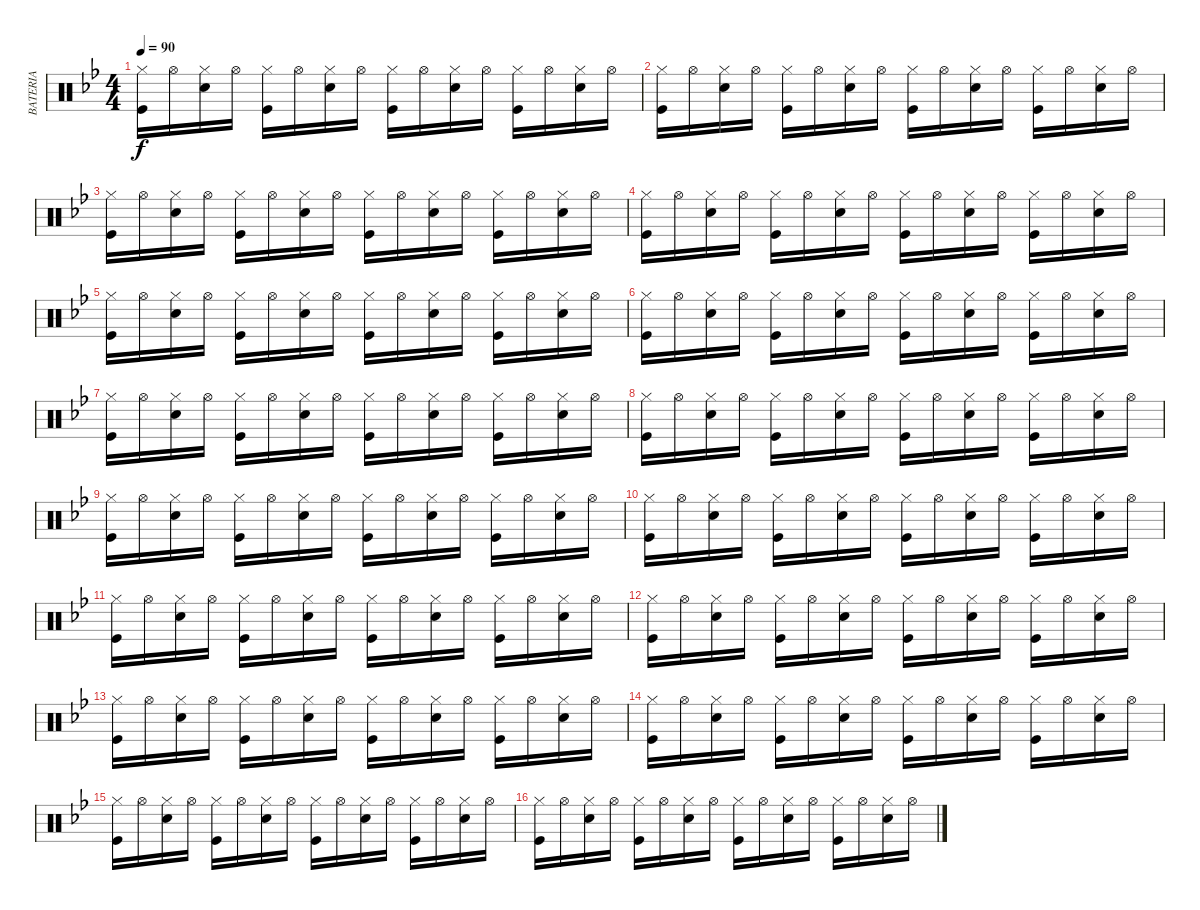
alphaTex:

\track ("BATERIA" "BATERIA") {instrument percussion}
\staff {score}
\articulation defaults
\ts (4 4)
\tempo 90
\clef neutral
\ks gminor
("Hi-Hat (closed)" "Kick (hit)").16{dy f} "Hi-Hat (open)".16 ("Hi-Hat (closed)" "Snare (hit) 2").16 "Hi-Hat (open)".16 ("Hi-Hat (closed)" "Kick (hit)").16 "Hi-Hat (open)".16 ("Hi-Hat (closed)" "Snare (hit) 2").16 "Hi-Hat (open)".16 ("Hi-Hat (closed)" "Kick (hit)").16 "Hi-Hat (open)".16 ("Hi-Hat (closed)" "Snare (hit) 2").16 "Hi-Hat (open)".16 ("Hi-Hat (closed)" "Kick (hit)").16 "Hi-Hat (open)".16 ("Hi-Hat (closed)" "Snare (hit) 2").16 "Hi-Hat (open)".16 |
("Hi-Hat (closed)" "Kick (hit)").16 "Hi-Hat (open)".16 ("Hi-Hat (closed)" "Snare (hit) 2").16 "Hi-Hat (open)".16 ("Hi-Hat (closed)" "Kick (hit)").16 "Hi-Hat (open)".16 ("Hi-Hat (closed)" "Snare (hit) 2").16 "Hi-Hat (open)".16 ("Hi-Hat (closed)" "Kick (hit)").16 "Hi-Hat (open)".16 ("Hi-Hat (closed)" "Snare (hit) 2").16 "Hi-Hat (open)".16 ("Hi-Hat (closed)" "Kick (hit)").16 "Hi-Hat (open)".16 ("Hi-Hat (closed)" "Snare (hit) 2").16 "Hi-Hat (open)".16 |
("Hi-Hat (closed)" "Kick (hit)").16 "Hi-Hat (open)".16 ("Hi-Hat (closed)" "Snare (hit) 2").16 "Hi-Hat (open)".16 ("Hi-Hat (closed)" "Kick (hit)").16 "Hi-Hat (open)".16 ("Hi-Hat (closed)" "Snare (hit) 2").16 "Hi-Hat (open)".16 ("Hi-Hat (closed)" "Kick (hit)").16 "Hi-Hat (open)".16 ("Hi-Hat (closed)" "Snare (hit) 2").16 "Hi-Hat (open)".16 ("Hi-Hat (closed)" "Kick (hit)").16 "Hi-Hat (open)".16 ("Hi-Hat (closed)" "Snare (hit) 2").16 "Hi-Hat (open)".16 |
("Hi-Hat (closed)" "Kick (hit)").16 "Hi-Hat (open)".16 ("Hi-Hat (closed)" "Snare (hit) 2").16 "Hi-Hat (open)".16 ("Hi-Hat (closed)" "Kick (hit)").16 "Hi-Hat (open)".16 ("Hi-Hat (closed)" "Snare (hit) 2").16 "Hi-Hat (open)".16 ("Hi-Hat (closed)" "Kick (hit)").16 "Hi-Hat (open)".16 ("Hi-Hat (closed)" "Snare (hit) 2").16 "Hi-Hat (open)".16 ("Hi-Hat (closed)" "Kick (hit)").16 "Hi-Hat (open)".16 ("Hi-Hat (closed)" "Snare (hit) 2").16 "Hi-Hat (open)".16 |
("Hi-Hat (closed)" "Kick (hit)").16 "Hi-Hat (open)".16 ("Hi-Hat (closed)" "Snare (hit) 2").16 "Hi-Hat (open)".16 ("Hi-Hat (closed)" "Kick (hit)").16 "Hi-Hat (open)".16 ("Hi-Hat (closed)" "Snare (hit) 2").16 "Hi-Hat (open)".16 ("Hi-Hat (closed)" "Kick (hit)").16 "Hi-Hat (open)".16 ("Hi-Hat (closed)" "Snare (hit) 2").16 "Hi-Hat (open)".16 ("Hi-Hat (closed)" "Kick (hit)").16 "Hi-Hat (open)".16 ("Hi-Hat (closed)" "Snare (hit) 2").16 "Hi-Hat (open)".16 |
("Hi-Hat (closed)" "Kick (hit)").16 "Hi-Hat (open)".16 ("Hi-Hat (closed)" "Snare (hit) 2").16 "Hi-Hat (open)".16 ("Hi-Hat (closed)" "Kick (hit)").16 "Hi-Hat (open)".16 ("Hi-Hat (closed)" "Snare (hit) 2").16 "Hi-Hat (open)".16 ("Hi-Hat (closed)" "Kick (hit)").16 "Hi-Hat (open)".16 ("Hi-Hat (closed)" "Snare (hit) 2").16 "Hi-Hat (open)".16 ("Hi-Hat (closed)" "Kick (hit)").16 "Hi-Hat (open)".16 ("Hi-Hat (closed)" "Snare (hit) 2").16 "Hi-Hat (open)".16 |
("Hi-Hat (closed)" "Kick (hit)").16 "Hi-Hat (open)".16 ("Hi-Hat (closed)" "Snare (hit) 2").16 "Hi-Hat (open)".16 ("Hi-Hat (closed)" "Kick (hit)").16 "Hi-Hat (open)".16 ("Hi-Hat (closed)" "Snare (hit) 2").16 "Hi-Hat (open)".16 ("Hi-Hat (closed)" "Kick (hit)").16 "Hi-Hat (open)".16 ("Hi-Hat (closed)" "Snare (hit) 2").16 "Hi-Hat (open)".16 ("Hi-Hat (closed)" "Kick (hit)").16 "Hi-Hat (open)".16 ("Hi-Hat (closed)" "Snare (hit) 2").16 "Hi-Hat (open)".16 |
("Hi-Hat (closed)" "Kick (hit)").16 "Hi-Hat (open)".16 ("Hi-Hat (closed)" "Snare (hit) 2").16 "Hi-Hat (open)".16 ("Hi-Hat (closed)" "Kick (hit)").16 "Hi-Hat (open)".16 ("Hi-Hat (closed)" "Snare (hit) 2").16 "Hi-Hat (open)".16 ("Hi-Hat (closed)" "Kick (hit)").16 "Hi-Hat (open)".16 ("Hi-Hat (closed)" "Snare (hit) 2").16 "Hi-Hat (open)".16 ("Hi-Hat (closed)" "Kick (hit)").16 "Hi-Hat (open)".16 ("Hi-Hat (closed)" "Snare (hit) 2").16 "Hi-Hat (open)".16 |
("Hi-Hat (closed)" "Kick (hit)").16 "Hi-Hat (open)".16 ("Hi-Hat (closed)" "Snare (hit) 2").16 "Hi-Hat (open)".16 ("Hi-Hat (closed)" "Kick (hit)").16 "Hi-Hat (open)".16 ("Hi-Hat (closed)" "Snare (hit) 2").16 "Hi-Hat (open)".16 ("Hi-Hat (closed)" "Kick (hit)").16 "Hi-Hat (open)".16 ("Hi-Hat (closed)" "Snare (hit) 2").16 "Hi-Hat (open)".16 ("Hi-Hat (closed)" "Kick (hit)").16 "Hi-Hat (open)".16 ("Hi-Hat (closed)" "Snare (hit) 2").16 "Hi-Hat (open)".16 |
("Hi-Hat (closed)" "Kick (hit)").16 "Hi-Hat (open)".16 ("Hi-Hat (closed)" "Snare (hit) 2").16 "Hi-Hat (open)".16 ("Hi-Hat (closed)" "Kick (hit)").16 "Hi-Hat (open)".16 ("Hi-Hat (closed)" "Snare (hit) 2").16 "Hi-Hat (open)".16 ("Hi-Hat (closed)" "Kick (hit)").16 "Hi-Hat (open)".16 ("Hi-Hat (closed)" "Snare (hit) 2").16 "Hi-Hat (open)".16 ("Hi-Hat (closed)" "Kick (hit)").16 "Hi-Hat (open)".16 ("Hi-Hat (closed)" "Snare (hit) 2").16 "Hi-Hat (open)".16 |
("Hi-Hat (closed)" "Kick (hit)").16 "Hi-Hat (open)".16 ("Hi-Hat (closed)" "Snare (hit) 2").16 "Hi-Hat (open)".16 ("Hi-Hat (closed)" "Kick (hit)").16 "Hi-Hat (open)".16 ("Hi-Hat (closed)" "Snare (hit) 2").16 "Hi-Hat (open)".16 ("Hi-Hat (closed)" "Kick (hit)").16 "Hi-Hat (open)".16 ("Hi-Hat (closed)" "Snare (hit) 2").16 "Hi-Hat (open)".16 ("Hi-Hat (closed)" "Kick (hit)").16 "Hi-Hat (open)".16 ("Hi-Hat (closed)" "Snare (hit) 2").16 "Hi-Hat (open)".16 |
("Hi-Hat (closed)" "Kick (hit)").16 "Hi-Hat (open)".16 ("Hi-Hat (closed)" "Snare (hit) 2").16 "Hi-Hat (open)".16 ("Hi-Hat (closed)" "Kick (hit)").16 "Hi-Hat (open)".16 ("Hi-Hat (closed)" "Snare (hit) 2").16 "Hi-Hat (open)".16 ("Hi-Hat (closed)" "Kick (hit)").16 "Hi-Hat (open)".16 ("Hi-Hat (closed)" "Snare (hit) 2").16 "Hi-Hat (open)".16 ("Hi-Hat (closed)" "Kick (hit)").16 "Hi-Hat (open)".16 ("Hi-Hat (closed)" "Snare (hit) 2").16 "Hi-Hat (open)".16 |
("Hi-Hat (closed)" "Kick (hit)").16 "Hi-Hat (open)".16 ("Hi-Hat (closed)" "Snare (hit) 2").16 "Hi-Hat (open)".16 ("Hi-Hat (closed)" "Kick (hit)").16 "Hi-Hat (open)".16 ("Hi-Hat (closed)" "Snare (hit) 2").16 "Hi-Hat (open)".16 ("Hi-Hat (closed)" "Kick (hit)").16 "Hi-Hat (open)".16 ("Hi-Hat (closed)" "Snare (hit) 2").16 "Hi-Hat (open)".16 ("Hi-Hat (closed)" "Kick (hit)").16 "Hi-Hat (open)".16 ("Hi-Hat (closed)" "Snare (hit) 2").16 "Hi-Hat (open)".16 |
("Hi-Hat (closed)" "Kick (hit)").16 "Hi-Hat (open)".16 ("Hi-Hat (closed)" "Snare (hit) 2").16 "Hi-Hat (open)".16 ("Hi-Hat (closed)" "Kick (hit)").16 "Hi-Hat (open)".16 ("Hi-Hat (closed)" "Snare (hit) 2").16 "Hi-Hat (open)".16 ("Hi-Hat (closed)" "Kick (hit)").16 "Hi-Hat (open)".16 ("Hi-Hat (closed)" "Snare (hit) 2").16 "Hi-Hat (open)".16 ("Hi-Hat (closed)" "Kick (hit)").16 "Hi-Hat (open)".16 ("Hi-Hat (closed)" "Snare (hit) 2").16 "Hi-Hat (open)".16 |
("Hi-Hat (closed)" "Kick (hit)").16 "Hi-Hat (open)".16 ("Hi-Hat (closed)" "Snare (hit) 2").16 "Hi-Hat (open)".16 ("Hi-Hat (closed)" "Kick (hit)").16 "Hi-Hat (open)".16 ("Hi-Hat (closed)" "Snare (hit) 2").16 "Hi-Hat (open)".16 ("Hi-Hat (closed)" "Kick (hit)").16 "Hi-Hat (open)".16 ("Hi-Hat (closed)" "Snare (hit) 2").16 "Hi-Hat (open)".16 ("Hi-Hat (closed)" "Kick (hit)").16 "Hi-Hat (open)".16 ("Hi-Hat (closed)" "Snare (hit) 2").16 "Hi-Hat (open)".16 |
("Hi-Hat (closed)" "Kick (hit)").16 "Hi-Hat (open)".16 ("Hi-Hat (closed)" "Snare (hit) 2").16 "Hi-Hat (open)".16 ("Hi-Hat (closed)" "Kick (hit)").16 "Hi-Hat (open)".16 ("Hi-Hat (closed)" "Snare (hit) 2").16 "Hi-Hat (open)".16 ("Hi-Hat (closed)" "Kick (hit)").16 "Hi-Hat (open)".16 ("Hi-Hat (closed)" "Snare (hit) 2").16 "Hi-Hat (open)".16 ("Hi-Hat (closed)" "Kick (hit)").16 "Hi-Hat (open)".16 ("Hi-Hat (closed)" "Snare (hit) 2").16 "Hi-Hat (open)".16
